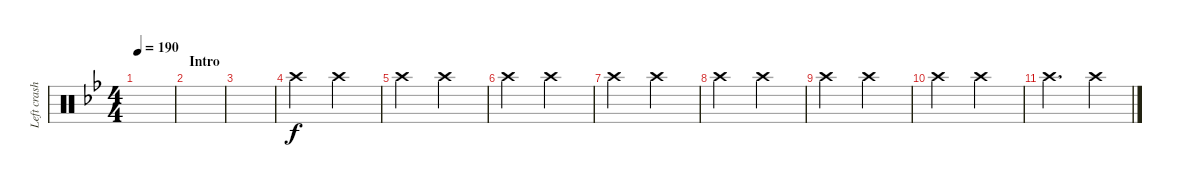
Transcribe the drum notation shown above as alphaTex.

\track ("Left crash" "Left crash") {instrument percussion}
\staff {score}
\articulation defaults
\ts (4 4)
\tempo 190
\clef neutral
\ks bb
|
\section ("" "Intro")
|
|
"Crash high (hit)".2 "Crash high (hit)".2 |
"Crash high (hit)".2 "Crash high (hit)".2 |
"Crash high (hit)".2 "Crash high (hit)".2 |
"Crash high (hit)".2 "Crash high (hit)".2 |
"Crash high (hit)".2 "Crash high (hit)".2 |
"Crash high (hit)".2 "Crash high (hit)".2 |
"Crash high (hit)".2 "Crash high (hit)".2 |
"Crash high (hit)".2{d} "Crash high (hit)".4
